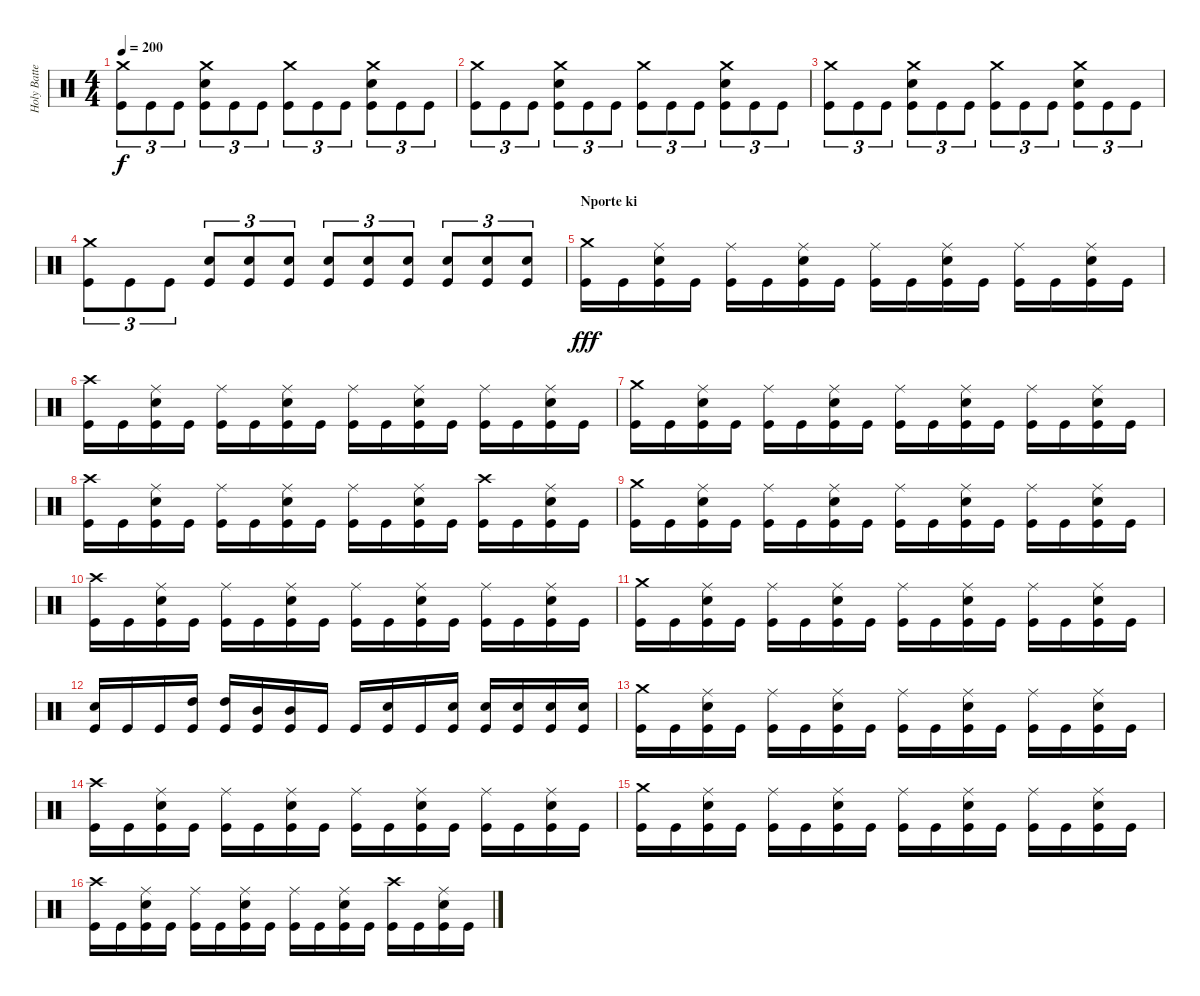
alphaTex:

\track ("Holy Batteur" "Holy Batte") {instrument percussion}
\staff {score}
\articulation defaults
\ts (4 4)
\tempo 200
\clef neutral
\ks c
("Crash medium (hit)" "Kick (hit)").8{tu (3 2) dy f} "Kick (hit)".8{tu (3 2)} "Kick (hit)".8{tu (3 2)} ("Crash medium (hit)" "Electric Snare (hit)" "Kick (hit)").8{tu (3 2)} "Kick (hit)".8{tu (3 2)} "Kick (hit)".8{tu (3 2)} ("Crash medium (hit)" "Kick (hit)").8{tu (3 2)} "Kick (hit)".8{tu (3 2)} "Kick (hit)".8{tu (3 2)} ("Crash medium (hit)" "Electric Snare (hit)" "Kick (hit)").8{tu (3 2)} "Kick (hit)".8{tu (3 2)} "Kick (hit)".8{tu (3 2)} |
("Crash medium (hit)" "Kick (hit)").8{tu (3 2)} "Kick (hit)".8{tu (3 2)} "Kick (hit)".8{tu (3 2)} ("Crash medium (hit)" "Electric Snare (hit)" "Kick (hit)").8{tu (3 2)} "Kick (hit)".8{tu (3 2)} "Kick (hit)".8{tu (3 2)} ("Crash medium (hit)" "Kick (hit)").8{tu (3 2)} "Kick (hit)".8{tu (3 2)} "Kick (hit)".8{tu (3 2)} ("Crash medium (hit)" "Electric Snare (hit)" "Kick (hit)").8{tu (3 2)} "Kick (hit)".8{tu (3 2)} "Kick (hit)".8{tu (3 2)} |
("Crash medium (hit)" "Kick (hit)").8{tu (3 2)} "Kick (hit)".8{tu (3 2)} "Kick (hit)".8{tu (3 2)} ("Crash medium (hit)" "Electric Snare (hit)" "Kick (hit)").8{tu (3 2)} "Kick (hit)".8{tu (3 2)} "Kick (hit)".8{tu (3 2)} ("Crash medium (hit)" "Kick (hit)").8{tu (3 2)} "Kick (hit)".8{tu (3 2)} "Kick (hit)".8{tu (3 2)} ("Crash medium (hit)" "Electric Snare (hit)" "Kick (hit)").8{tu (3 2)} "Kick (hit)".8{tu (3 2)} "Kick (hit)".8{tu (3 2)} |
("Crash medium (hit)" "Kick (hit)").8{tu (3 2)} "Kick (hit)".8{tu (3 2)} "Kick (hit)".8{tu (3 2)} ("Electric Snare (hit)" "Kick (hit)").8{tu (3 2)} ("Electric Snare (hit)" "Kick (hit)").8{tu (3 2)} ("Electric Snare (hit)" "Kick (hit)").8{tu (3 2)} ("Electric Snare (hit)" "Kick (hit)").8{tu (3 2)} ("Electric Snare (hit)" "Kick (hit)").8{tu (3 2)} ("Electric Snare (hit)" "Kick (hit)").8{tu (3 2)} ("Electric Snare (hit)" "Kick (hit)").8{tu (3 2)} ("Electric Snare (hit)" "Kick (hit)").8{tu (3 2)} ("Electric Snare (hit)" "Kick (hit)").8{tu (3 2)} |
\section ("" "Nporte ki")
("Crash medium (hit)" "Kick (hit)").16{dy fff} "Kick (hit)".16 ("Ride (middle)" "Electric Snare (hit)" "Kick (hit)").16 "Kick (hit)".16 ("Ride (middle)" "Kick (hit)").16 "Kick (hit)".16 ("Ride (middle)" "Electric Snare (hit)" "Kick (hit)").16 "Kick (hit)".16 ("Ride (middle)" "Kick (hit)").16 "Kick (hit)".16 ("Ride (middle)" "Electric Snare (hit)" "Kick (hit)").16 "Kick (hit)".16 ("Ride (middle)" "Kick (hit)").16 "Kick (hit)".16 ("Ride (middle)" "Electric Snare (hit)" "Kick (hit)").16 "Kick (hit)".16 |
("Crash high (hit)" "Kick (hit)").16 "Kick (hit)".16 ("Ride (middle)" "Electric Snare (hit)" "Kick (hit)").16 "Kick (hit)".16 ("Ride (middle)" "Kick (hit)").16 "Kick (hit)".16 ("Ride (middle)" "Electric Snare (hit)" "Kick (hit)").16 "Kick (hit)".16 ("Ride (middle)" "Kick (hit)").16 "Kick (hit)".16 ("Ride (middle)" "Electric Snare (hit)" "Kick (hit)").16 "Kick (hit)".16 ("Ride (middle)" "Kick (hit)").16 "Kick (hit)".16 ("Ride (middle)" "Electric Snare (hit)" "Kick (hit)").16 "Kick (hit)".16 |
("Crash medium (hit)" "Kick (hit)").16 "Kick (hit)".16 ("Ride (middle)" "Electric Snare (hit)" "Kick (hit)").16 "Kick (hit)".16 ("Ride (middle)" "Kick (hit)").16 "Kick (hit)".16 ("Ride (middle)" "Electric Snare (hit)" "Kick (hit)").16 "Kick (hit)".16 ("Ride (middle)" "Kick (hit)").16 "Kick (hit)".16 ("Ride (middle)" "Electric Snare (hit)" "Kick (hit)").16 "Kick (hit)".16 ("Ride (middle)" "Kick (hit)").16 "Kick (hit)".16 ("Ride (middle)" "Electric Snare (hit)" "Kick (hit)").16 "Kick (hit)".16 |
("Crash high (hit)" "Kick (hit)").16 "Kick (hit)".16 ("Ride (middle)" "Electric Snare (hit)" "Kick (hit)").16 "Kick (hit)".16 ("Ride (middle)" "Kick (hit)").16 "Kick (hit)".16 ("Ride (middle)" "Electric Snare (hit)" "Kick (hit)").16 "Kick (hit)".16 ("Ride (middle)" "Kick (hit)").16 "Kick (hit)".16 ("Ride (middle)" "Electric Snare (hit)" "Kick (hit)").16 "Kick (hit)".16 ("Crash high (hit)" "Kick (hit)").16 "Kick (hit)".16 ("Ride (middle)" "Electric Snare (hit)" "Kick (hit)").16 "Kick (hit)".16 |
("Crash medium (hit)" "Kick (hit)").16 "Kick (hit)".16 ("Ride (middle)" "Electric Snare (hit)" "Kick (hit)").16 "Kick (hit)".16 ("Ride (middle)" "Kick (hit)").16 "Kick (hit)".16 ("Ride (middle)" "Electric Snare (hit)" "Kick (hit)").16 "Kick (hit)".16 ("Ride (middle)" "Kick (hit)").16 "Kick (hit)".16 ("Ride (middle)" "Electric Snare (hit)" "Kick (hit)").16 "Kick (hit)".16 ("Ride (middle)" "Kick (hit)").16 "Kick (hit)".16 ("Ride (middle)" "Electric Snare (hit)" "Kick (hit)").16 "Kick (hit)".16 |
("Crash high (hit)" "Kick (hit)").16 "Kick (hit)".16 ("Ride (middle)" "Electric Snare (hit)" "Kick (hit)").16 "Kick (hit)".16 ("Ride (middle)" "Kick (hit)").16 "Kick (hit)".16 ("Ride (middle)" "Electric Snare (hit)" "Kick (hit)").16 "Kick (hit)".16 ("Ride (middle)" "Kick (hit)").16 "Kick (hit)".16 ("Ride (middle)" "Electric Snare (hit)" "Kick (hit)").16 "Kick (hit)".16 ("Ride (middle)" "Kick (hit)").16 "Kick (hit)".16 ("Ride (middle)" "Electric Snare (hit)" "Kick (hit)").16 "Kick (hit)".16 |
("Crash medium (hit)" "Kick (hit)").16 "Kick (hit)".16 ("Ride (middle)" "Electric Snare (hit)" "Kick (hit)").16 "Kick (hit)".16 ("Ride (middle)" "Kick (hit)").16 "Kick (hit)".16 ("Ride (middle)" "Electric Snare (hit)" "Kick (hit)").16 "Kick (hit)".16 ("Ride (middle)" "Kick (hit)").16 "Kick (hit)".16 ("Ride (middle)" "Electric Snare (hit)" "Kick (hit)").16 "Kick (hit)".16 ("Ride (middle)" "Kick (hit)").16 "Kick (hit)".16 ("Ride (middle)" "Electric Snare (hit)" "Kick (hit)").16 "Kick (hit)".16 |
("Electric Snare (hit)" "Kick (hit)").16 "Kick (hit)".16 "Kick (hit)".16 ("High Tom (hit)" "Kick (hit)").16 ("High Tom (hit)" "Kick (hit)").16 ("Mid Tom (hit)" "Kick (hit)").16 ("Mid Tom (hit)" "Kick (hit)").16 "Kick (hit)".16 "Kick (hit)".16 ("Electric Snare (hit)" "Kick (hit)").16 "Kick (hit)".16 ("Electric Snare (hit)" "Kick (hit)").16 ("Electric Snare (hit)" "Kick (hit)").16 ("Electric Snare (hit)" "Kick (hit)").16 ("Electric Snare (hit)" "Kick (hit)").16 ("Electric Snare (hit)" "Kick (hit)").16 |
("Crash medium (hit)" "Kick (hit)").16 "Kick (hit)".16 ("Ride (middle)" "Electric Snare (hit)" "Kick (hit)").16 "Kick (hit)".16 ("Ride (middle)" "Kick (hit)").16 "Kick (hit)".16 ("Ride (middle)" "Electric Snare (hit)" "Kick (hit)").16 "Kick (hit)".16 ("Ride (middle)" "Kick (hit)").16 "Kick (hit)".16 ("Ride (middle)" "Electric Snare (hit)" "Kick (hit)").16 "Kick (hit)".16 ("Ride (middle)" "Kick (hit)").16 "Kick (hit)".16 ("Ride (middle)" "Electric Snare (hit)" "Kick (hit)").16 "Kick (hit)".16 |
("Crash high (hit)" "Kick (hit)").16 "Kick (hit)".16 ("Ride (middle)" "Electric Snare (hit)" "Kick (hit)").16 "Kick (hit)".16 ("Ride (middle)" "Kick (hit)").16 "Kick (hit)".16 ("Ride (middle)" "Electric Snare (hit)" "Kick (hit)").16 "Kick (hit)".16 ("Ride (middle)" "Kick (hit)").16 "Kick (hit)".16 ("Ride (middle)" "Electric Snare (hit)" "Kick (hit)").16 "Kick (hit)".16 ("Ride (middle)" "Kick (hit)").16 "Kick (hit)".16 ("Ride (middle)" "Electric Snare (hit)" "Kick (hit)").16 "Kick (hit)".16 |
("Crash medium (hit)" "Kick (hit)").16 "Kick (hit)".16 ("Ride (middle)" "Electric Snare (hit)" "Kick (hit)").16 "Kick (hit)".16 ("Ride (middle)" "Kick (hit)").16 "Kick (hit)".16 ("Ride (middle)" "Electric Snare (hit)" "Kick (hit)").16 "Kick (hit)".16 ("Ride (middle)" "Kick (hit)").16 "Kick (hit)".16 ("Ride (middle)" "Electric Snare (hit)" "Kick (hit)").16 "Kick (hit)".16 ("Ride (middle)" "Kick (hit)").16 "Kick (hit)".16 ("Ride (middle)" "Electric Snare (hit)" "Kick (hit)").16 "Kick (hit)".16 |
("Crash high (hit)" "Kick (hit)").16 "Kick (hit)".16 ("Ride (middle)" "Electric Snare (hit)" "Kick (hit)").16 "Kick (hit)".16 ("Ride (middle)" "Kick (hit)").16 "Kick (hit)".16 ("Ride (middle)" "Electric Snare (hit)" "Kick (hit)").16 "Kick (hit)".16 ("Ride (middle)" "Kick (hit)").16 "Kick (hit)".16 ("Ride (middle)" "Electric Snare (hit)" "Kick (hit)").16 "Kick (hit)".16 ("Crash high (hit)" "Kick (hit)").16 "Kick (hit)".16 ("Ride (middle)" "Electric Snare (hit)" "Kick (hit)").16 "Kick (hit)".16
